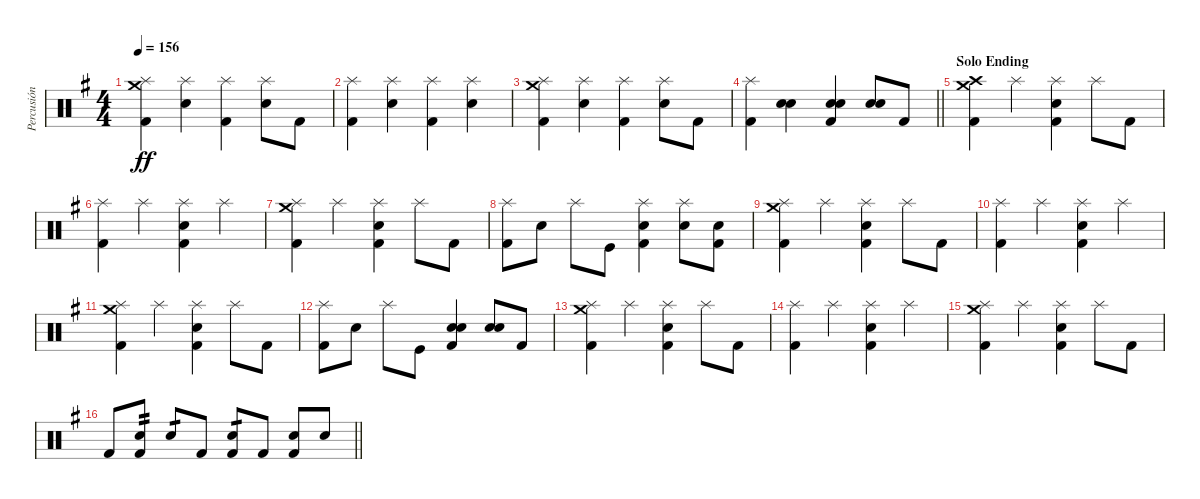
\track ("Percusión" "Percusión") {instrument percussion}
\staff {score}
\articulation defaults
\ts (4 4)
\tempo 156
\clef neutral
\ks eminor
("Crash medium (hit)" "Splash (hit)" "Kick (hit) 2").4{dy ff} ("Splash (hit)" "Electric Snare (hit)").4 ("Splash (hit)" "Kick (hit) 2").4 ("Splash (hit)" "Electric Snare (hit)").8 "Kick (hit) 2".8 |
("Splash (hit)" "Kick (hit) 2").4 ("Splash (hit)" "Electric Snare (hit)").4 ("Splash (hit)" "Kick (hit) 2").4 ("Splash (hit)" "Electric Snare (hit)").4 |
("Crash medium (hit)" "Splash (hit)" "Kick (hit) 2").4 ("Splash (hit)" "Electric Snare (hit)").4 ("Splash (hit)" "Kick (hit) 2").4 ("Splash (hit)" "Electric Snare (hit)").8 "Kick (hit) 2".8 |
\barLineRight lightlight
("Splash (hit)" "Kick (hit) 2").4 ("Electric Snare (hit)" "Electric Snare (hit)").4 ("Electric Snare (hit)" "Electric Snare (hit)" "Kick (hit) 2").4 ("Electric Snare (hit)" "Electric Snare (hit)").8 "Kick (hit) 2".8 |
\section ("" "Solo Ending")
("Crash medium (hit)" "Crash high (hit)" "Kick (hit) 2").4 "Splash (hit)".4 ("Splash (hit)" "Electric Snare (hit)" "Kick (hit) 2").4 "Splash (hit)".8 "Kick (hit) 2".8 |
("Splash (hit)" "Kick (hit) 2").4 "Splash (hit)".4 ("Splash (hit)" "Electric Snare (hit)" "Kick (hit) 2").4 "Splash (hit)".4 |
("Crash medium (hit)" "Splash (hit)" "Kick (hit) 2").4 "Splash (hit)".4 ("Splash (hit)" "Electric Snare (hit)" "Kick (hit) 2").4 "Splash (hit)".8 "Kick (hit) 2".8 |
("Splash (hit)" "Kick (hit) 2").8 "Electric Snare (hit)".8 "Splash (hit)".8 "Kick (hit)".8 ("Splash (hit)" "Electric Snare (hit)" "Kick (hit) 2").4 ("Splash (hit)" "Electric Snare (hit)").8 ("Electric Snare (hit)" "Kick (hit) 2").8 |
("Crash medium (hit)" "Splash (hit)" "Kick (hit) 2").4 "Splash (hit)".4 ("Splash (hit)" "Electric Snare (hit)" "Kick (hit) 2").4 "Splash (hit)".8 "Kick (hit) 2".8 |
("Splash (hit)" "Kick (hit) 2").4 "Splash (hit)".4 ("Splash (hit)" "Electric Snare (hit)" "Kick (hit) 2").4 "Splash (hit)".4 |
("Crash medium (hit)" "Splash (hit)" "Kick (hit) 2").4 "Splash (hit)".4 ("Splash (hit)" "Electric Snare (hit)" "Kick (hit) 2").4 "Splash (hit)".8 "Kick (hit) 2".8 |
("Splash (hit)" "Kick (hit) 2").8 "Electric Snare (hit)".8 "Splash (hit)".8 "Kick (hit)".8 ("Electric Snare (hit)" "Electric Snare (hit)" "Kick (hit) 2").4 ("Electric Snare (hit)" "Electric Snare (hit)").8 "Kick (hit) 2".8 |
("Crash medium (hit)" "Splash (hit)" "Kick (hit) 2").4 "Splash (hit)".4 ("Splash (hit)" "Electric Snare (hit)" "Kick (hit) 2").4 "Splash (hit)".8 "Kick (hit) 2".8 |
("Splash (hit)" "Kick (hit) 2").4 "Splash (hit)".4 ("Splash (hit)" "Electric Snare (hit)" "Kick (hit) 2").4 "Splash (hit)".4 |
("Crash medium (hit)" "Splash (hit)" "Kick (hit) 2").4 "Splash (hit)".4 ("Splash (hit)" "Electric Snare (hit)" "Kick (hit) 2").4 "Splash (hit)".8 "Kick (hit) 2".8 |
\barLineRight lightlight "Kick (hit) 2".8
("Electric Snare (hit)" "Kick (hit) 2").8{tp 2} "Electric Snare (hit)".8{tp 1} "Kick (hit) 2".8 ("Electric Snare (hit)" "Kick (hit) 2").8{tp 1} "Kick (hit) 2".8 ("Electric Snare (hit)" "Kick (hit) 2").8 "Electric Snare (hit)".8
